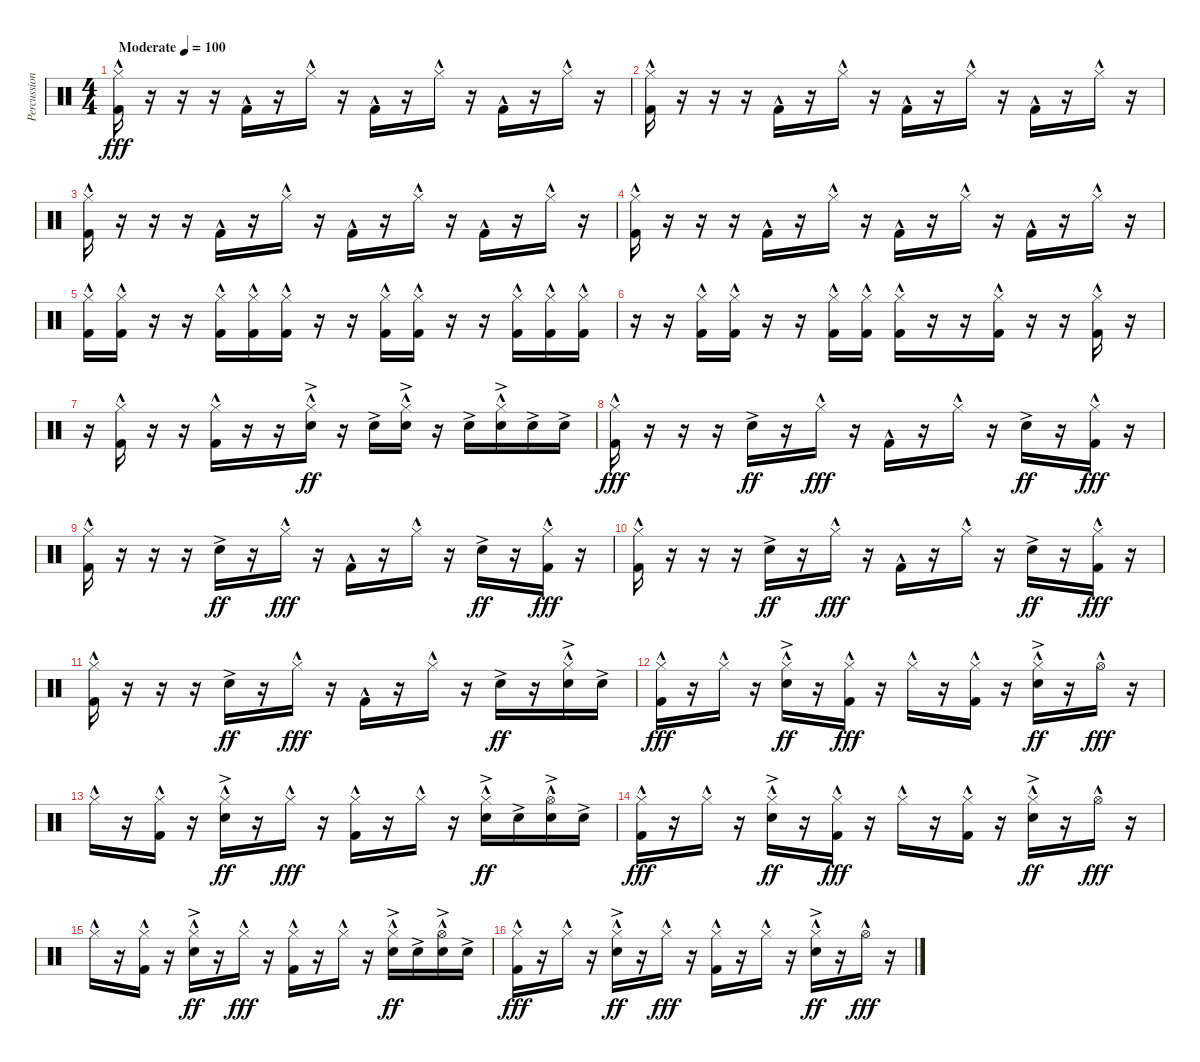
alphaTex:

\track ("Percussion" "Percussion") {instrument percussion}
\staff {score}
\articulation defaults
\ts (4 4)
\tempo (100 "Moderate")
\clef neutral
\ks c
("Hi-Hat (closed)"{hac} "Kick (hit) 2"{hac}).16{dy fff} r.16 r.16 r.16 "Kick (hit) 2"{hac}.16 r.16 "Hi-Hat (closed)"{hac}.16 r.16 "Kick (hit) 2"{hac}.16 r.16 "Hi-Hat (closed)"{hac}.16 r.16 "Kick (hit) 2"{hac}.16 r.16 "Hi-Hat (closed)"{hac}.16 r.16 |
("Hi-Hat (closed)"{hac} "Kick (hit) 2"{hac}).16 r.16 r.16 r.16 "Kick (hit) 2"{hac}.16 r.16 "Hi-Hat (closed)"{hac}.16 r.16 "Kick (hit) 2"{hac}.16 r.16 "Hi-Hat (closed)"{hac}.16 r.16 "Kick (hit) 2"{hac}.16 r.16 "Hi-Hat (closed)"{hac}.16 r.16 |
("Hi-Hat (closed)"{hac} "Kick (hit) 2"{hac}).16 r.16 r.16 r.16 "Kick (hit) 2"{hac}.16 r.16 "Hi-Hat (closed)"{hac}.16 r.16 "Kick (hit) 2"{hac}.16 r.16 "Hi-Hat (closed)"{hac}.16 r.16 "Kick (hit) 2"{hac}.16 r.16 "Hi-Hat (closed)"{hac}.16 r.16 |
("Hi-Hat (closed)"{hac} "Kick (hit) 2"{hac}).16 r.16 r.16 r.16 "Kick (hit) 2"{hac}.16 r.16 "Hi-Hat (closed)"{hac}.16 r.16 "Kick (hit) 2"{hac}.16 r.16 "Hi-Hat (closed)"{hac}.16 r.16 "Kick (hit) 2"{hac}.16 r.16 "Hi-Hat (closed)"{hac}.16 r.16 |
("Hi-Hat (closed)"{hac} "Kick (hit) 2"{hac}).16 ("Hi-Hat (closed)"{hac} "Kick (hit) 2"{hac}).16 r.16 r.16 ("Hi-Hat (closed)"{hac} "Kick (hit) 2"{hac}).16 ("Hi-Hat (closed)"{hac} "Kick (hit) 2"{hac}).16 ("Hi-Hat (closed)"{hac} "Kick (hit) 2"{hac}).16 r.16 r.16 ("Hi-Hat (closed)"{hac} "Kick (hit) 2"{hac}).16 ("Hi-Hat (closed)"{hac} "Kick (hit) 2"{hac}).16 r.16 r.16 ("Hi-Hat (closed)"{hac} "Kick (hit) 2"{hac}).16 ("Hi-Hat (closed)"{hac} "Kick (hit) 2"{hac}).16 ("Hi-Hat (closed)"{hac} "Kick (hit) 2"{hac}).16 |
r.16 r.16 ("Hi-Hat (closed)"{hac} "Kick (hit) 2"{hac}).16 ("Hi-Hat (closed)"{hac} "Kick (hit) 2"{hac}).16 r.16 r.16 ("Hi-Hat (closed)"{hac} "Kick (hit) 2"{hac}).16 ("Hi-Hat (closed)"{hac} "Kick (hit) 2"{hac}).16 ("Hi-Hat (closed)"{hac} "Kick (hit) 2"{hac}).16 r.16 r.16 ("Hi-Hat (closed)"{hac} "Kick (hit) 2"{hac}).16 r.16 r.16 ("Hi-Hat (closed)"{hac} "Kick (hit) 2"{hac}).16 r.16 |
r.16 ("Hi-Hat (closed)"{hac} "Kick (hit) 2"{hac}).16 r.16 r.16 ("Hi-Hat (closed)"{hac} "Kick (hit) 2"{hac}).16 r.16 r.16 ("Hi-Hat (closed)"{hac} "Snare (hit) 2"{ac}).16{dy ff} r.16 "Snare (hit) 2"{ac}.16 ("Hi-Hat (closed)"{hac} "Snare (hit) 2"{ac}).16 r.16 "Snare (hit) 2"{ac}.16 ("Hi-Hat (closed)"{hac} "Snare (hit) 2"{ac}).16 "Snare (hit) 2"{ac}.16 "Snare (hit) 2"{ac}.16 |
("Hi-Hat (closed)"{hac} "Kick (hit) 2"{hac}).16{dy fff} r.16 r.16 r.16 "Snare (hit) 2"{ac}.16{dy ff} r.16 "Hi-Hat (closed)"{hac}.16{dy fff} r.16 "Kick (hit) 2"{hac}.16 r.16 "Hi-Hat (closed)"{hac}.16 r.16 "Snare (hit) 2"{ac}.16{dy ff} r.16 ("Hi-Hat (closed)"{hac} "Kick (hit) 2"{hac}).16{dy fff} r.16 |
("Hi-Hat (closed)"{hac} "Kick (hit) 2"{hac}).16 r.16 r.16 r.16 "Snare (hit) 2"{ac}.16{dy ff} r.16 "Hi-Hat (closed)"{hac}.16{dy fff} r.16 "Kick (hit) 2"{hac}.16 r.16 "Hi-Hat (closed)"{hac}.16 r.16 "Snare (hit) 2"{ac}.16{dy ff} r.16 ("Hi-Hat (closed)"{hac} "Kick (hit) 2"{hac}).16{dy fff} r.16 |
("Hi-Hat (closed)"{hac} "Kick (hit) 2"{hac}).16 r.16 r.16 r.16 "Snare (hit) 2"{ac}.16{dy ff} r.16 "Hi-Hat (closed)"{hac}.16{dy fff} r.16 "Kick (hit) 2"{hac}.16 r.16 "Hi-Hat (closed)"{hac}.16 r.16 "Snare (hit) 2"{ac}.16{dy ff} r.16 ("Hi-Hat (closed)"{hac} "Kick (hit) 2"{hac}).16{dy fff} r.16 |
("Hi-Hat (closed)"{hac} "Kick (hit) 2"{hac}).16 r.16 r.16 r.16 "Snare (hit) 2"{ac}.16{dy ff} r.16 "Hi-Hat (closed)"{hac}.16{dy fff} r.16 "Kick (hit) 2"{hac}.16 r.16 "Hi-Hat (closed)"{hac}.16 r.16 "Snare (hit) 2"{ac}.16{dy ff} r.16 ("Hi-Hat (closed)"{hac} "Snare (hit) 2"{ac}).16 "Snare (hit) 2"{ac}.16 |
("Hi-Hat (closed)"{hac} "Kick (hit) 2"{hac}).16{dy fff} r.16 "Hi-Hat (closed)"{hac}.16 r.16 ("Hi-Hat (closed)"{hac} "Snare (hit) 2"{ac}).16{dy ff} r.16 ("Hi-Hat (closed)"{hac} "Kick (hit) 2"{hac}).16{dy fff} r.16 "Hi-Hat (closed)"{hac}.16 r.16 ("Hi-Hat (closed)"{hac} "Kick (hit) 2"{hac}).16 r.16 ("Hi-Hat (closed)"{hac} "Snare (hit) 2"{ac}).16{dy ff} r.16 "Hi-Hat (open)"{hac}.16{dy fff} r.16 |
"Hi-Hat (closed)"{hac}.16 r.16 ("Hi-Hat (closed)"{hac} "Kick (hit) 2"{hac}).16 r.16 ("Hi-Hat (closed)"{hac} "Snare (hit) 2"{ac}).16{dy ff} r.16 "Hi-Hat (closed)"{hac}.16{dy fff} r.16 ("Hi-Hat (closed)"{hac} "Kick (hit) 2"{hac}).16 r.16 "Hi-Hat (closed)"{hac}.16 r.16 ("Hi-Hat (closed)"{hac} "Snare (hit) 2"{ac}).16{dy ff} "Snare (hit) 2"{ac}.16 ("Hi-Hat (open)"{hac} "Snare (hit) 2"{ac}).16 "Snare (hit) 2"{ac}.16 |
("Hi-Hat (closed)"{hac} "Kick (hit) 2"{hac}).16{dy fff} r.16 "Hi-Hat (closed)"{hac}.16 r.16 ("Hi-Hat (closed)"{hac} "Snare (hit) 2"{ac}).16{dy ff} r.16 ("Hi-Hat (closed)"{hac} "Kick (hit) 2"{hac}).16{dy fff} r.16 "Hi-Hat (closed)"{hac}.16 r.16 ("Hi-Hat (closed)"{hac} "Kick (hit) 2"{hac}).16 r.16 ("Hi-Hat (closed)"{hac} "Snare (hit) 2"{ac}).16{dy ff} r.16 "Hi-Hat (open)"{hac}.16{dy fff} r.16 |
"Hi-Hat (closed)"{hac}.16 r.16 ("Hi-Hat (closed)"{hac} "Kick (hit) 2"{hac}).16 r.16 ("Hi-Hat (closed)"{hac} "Snare (hit) 2"{ac}).16{dy ff} r.16 "Hi-Hat (closed)"{hac}.16{dy fff} r.16 ("Hi-Hat (closed)"{hac} "Kick (hit) 2"{hac}).16 r.16 "Hi-Hat (closed)"{hac}.16 r.16 ("Hi-Hat (closed)"{hac} "Snare (hit) 2"{ac}).16{dy ff} "Snare (hit) 2"{ac}.16 ("Hi-Hat (open)"{hac} "Snare (hit) 2"{ac}).16 "Snare (hit) 2"{ac}.16 |
("Hi-Hat (closed)"{hac} "Kick (hit) 2"{hac}).16{dy fff} r.16 "Hi-Hat (closed)"{hac}.16 r.16 ("Hi-Hat (closed)"{hac} "Snare (hit) 2"{ac}).16{dy ff} r.16 "Hi-Hat (closed)"{hac}.16{dy fff} r.16 ("Hi-Hat (closed)"{hac} "Kick (hit) 2"{hac}).16 r.16 "Hi-Hat (closed)"{hac}.16 r.16 ("Hi-Hat (closed)"{hac} "Snare (hit) 2"{ac}).16{dy ff} r.16 "Hi-Hat (open)"{hac}.16{dy fff} r.16
